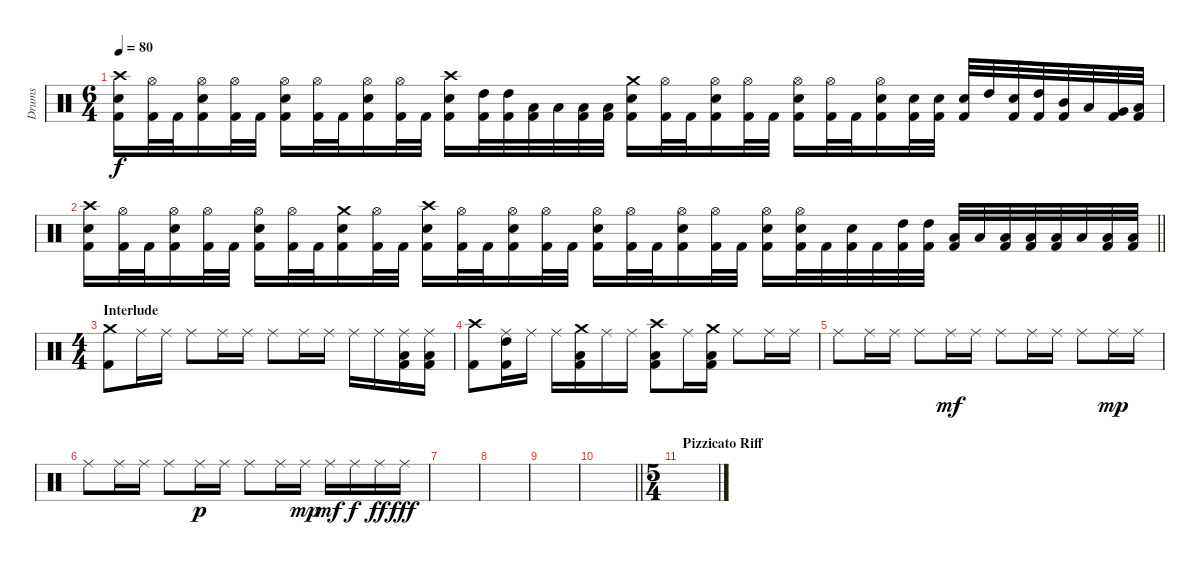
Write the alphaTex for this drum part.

\track ("Drums" "Drums") {instrument percussion}
\staff {score}
\articulation defaults
\ts (6 4)
\tempo 80
\clef neutral
\ks c
("Crash high (hit)" "Electric Snare (hit)" "Kick (hit) 2").16{dy f} ("Hi-Hat (open)" "Kick (hit) 2").32 "Kick (hit) 2".32 ("Hi-Hat (open)" "Electric Snare (hit)" "Kick (hit) 2").16 ("Hi-Hat (open)" "Kick (hit) 2").32 "Kick (hit) 2".32 ("Hi-Hat (open)" "Electric Snare (hit)" "Kick (hit) 2").16 ("Hi-Hat (open)" "Kick (hit) 2").32 "Kick (hit) 2".32 ("Hi-Hat (open)" "Electric Snare (hit)" "Kick (hit) 2").16 ("Hi-Hat (open)" "Kick (hit) 2").32 "Kick (hit) 2".32 ("Crash high (hit)" "Electric Snare (hit)" "Kick (hit) 2").16 ("High Tom (hit)" "Kick (hit) 2").32 ("High Tom (hit)" "Kick (hit) 2").32 ("Low Tom (hit)" "Kick (hit) 2").32 "Low Tom (hit)".32 ("Low Floor Tom (hit)" "Kick (hit) 2").32 ("Low Floor Tom (hit)" "Kick (hit) 2").32 ("Crash medium (hit)" "Electric Snare (hit)" "Kick (hit) 2").16 ("Hi-Hat (open)" "Kick (hit) 2").32 "Kick (hit) 2".32 ("Hi-Hat (open)" "Electric Snare (hit)" "Kick (hit) 2").16 ("Hi-Hat (open)" "Kick (hit) 2").32 "Kick (hit) 2".32 ("Hi-Hat (open)" "Electric Snare (hit)" "Kick (hit) 2").16 ("Hi-Hat (open)" "Kick (hit) 2").32 "Kick (hit) 2".32 ("Hi-Hat (open)" "Electric Snare (hit)" "Kick (hit) 2").16 ("Electric Snare (hit)" "Kick (hit) 2").32 ("Electric Snare (hit)" "Kick (hit) 2").32 ("Electric Snare (hit)" "Kick (hit) 2").32 "High Tom (hit)".32 ("Electric Snare (hit)" "Kick (hit) 2").32 ("High Tom (hit)" "Kick (hit) 2").32 ("Mid Tom (hit)" "Kick (hit) 2").32 "Low Tom (hit)".32 ("Very Low Tom (hit)" "Kick (hit) 2").32 ("Low Floor Tom (hit)" "Kick (hit) 2").32 |
\barLineRight lightlight
("Crash high (hit)" "Electric Snare (hit)" "Kick (hit) 2").16 ("Hi-Hat (open)" "Kick (hit) 2").32 "Kick (hit) 2".32 ("Hi-Hat (open)" "Electric Snare (hit)" "Kick (hit) 2").16 ("Hi-Hat (open)" "Kick (hit) 2").32 "Kick (hit) 2".32 ("Hi-Hat (open)" "Electric Snare (hit)" "Kick (hit) 2").16 ("Hi-Hat (open)" "Kick (hit) 2").32 "Kick (hit) 2".32 ("Crash medium (hit)" "Electric Snare (hit)" "Kick (hit) 2").16 ("Hi-Hat (open)" "Kick (hit) 2").32 "Kick (hit) 2".32 ("Crash high (hit)" "Electric Snare (hit)" "Kick (hit) 2").16 ("Hi-Hat (open)" "Kick (hit) 2").32 "Kick (hit) 2".32 ("Hi-Hat (open)" "Electric Snare (hit)" "Kick (hit) 2").16 ("Hi-Hat (open)" "Kick (hit) 2").32 "Kick (hit) 2".32 ("Hi-Hat (open)" "Electric Snare (hit)" "Kick (hit) 2").16 ("Hi-Hat (open)" "Kick (hit) 2").32 "Kick (hit) 2".32 ("Hi-Hat (open)" "Electric Snare (hit)" "Kick (hit) 2").16 ("Hi-Hat (open)" "Kick (hit) 2").32 "Kick (hit) 2".32 ("Hi-Hat (open)" "Electric Snare (hit)" "Kick (hit) 2").16 ("Hi-Hat (open)" "Electric Snare (hit)" "Kick (hit) 2").32 "Kick (hit) 2".32 ("Electric Snare (hit)" "Kick (hit) 2").32 "Kick (hit) 2".32 ("High Tom (hit)" "Kick (hit) 2").32 ("High Tom (hit)" "Kick (hit) 2").32 ("Low Tom (hit)" "Kick (hit) 2").32 "Low Tom (hit)".32 ("Low Tom (hit)" "Kick (hit) 2").32 ("Low Tom (hit)" "Kick (hit) 2").32 ("Low Floor Tom (hit)" "Kick (hit) 2").32 "Low Floor Tom (hit)".32 ("Low Floor Tom (hit)" "Kick (hit) 2").32 ("Low Floor Tom (hit)" "Kick (hit) 2").32 |
\ts (4 4)
\section ("" "Interlude")
("Crash medium (hit)" "Kick (hit) 2").8 "Ride (middle)".16 "Ride (middle)".16 "Ride (middle)".8 "Ride (middle)".16 "Ride (middle)".16 "Ride (middle)".8 "Ride (middle)".16 "Ride (middle)".16 "Ride (middle)".16 "Ride (middle)".16 ("Ride (middle)" "Low Floor Tom (hit)" "Kick (hit) 2").16 ("Ride (middle)" "Low Floor Tom (hit)" "Kick (hit) 2").16 |
("Crash high (hit)" "Kick (hit) 2").8 ("Ride (middle)" "High Tom (hit)" "Kick (hit) 2").16 "Ride (middle)".16 "Ride (middle)".16 ("Crash medium (hit)" "Low Tom (hit)" "Kick (hit) 2").16 "Ride (middle)".16 "Ride (middle)".16 ("Crash high (hit)" "Low Floor Tom (hit)" "Kick (hit) 2").8 "Ride (middle)".16 ("Crash medium (hit)" "Low Floor Tom (hit)" "Kick (hit) 2").16 "Ride (middle)".8 "Ride (middle)".16 "Ride (middle)".16 |
"Ride (middle)".8 "Ride (middle)".16 "Ride (middle)".16 "Ride (middle)".8 "Ride (middle)".16{dy mf} "Ride (middle)".16 "Ride (middle)".8 "Ride (middle)".16 "Ride (middle)".16 "Ride (middle)".8 "Ride (middle)".16{dy mp} "Ride (middle)".16 |
"Ride (middle)".8 "Ride (middle)".16 "Ride (middle)".16 "Ride (middle)".8 "Ride (middle)".16{dy p} "Ride (middle)".16 "Ride (middle)".8 "Ride (middle)".16 "Ride (middle)".16{dy mp} "Ride (middle)".16{dy mf} "Ride (middle)".16{dy f} "Ride (middle)".16{dy ff} "Ride (middle)".16{dy fff} |
|
|
|
\barLineRight lightlight
|
\ts (5 4)
\section ("" "Pizzicato Riff")
